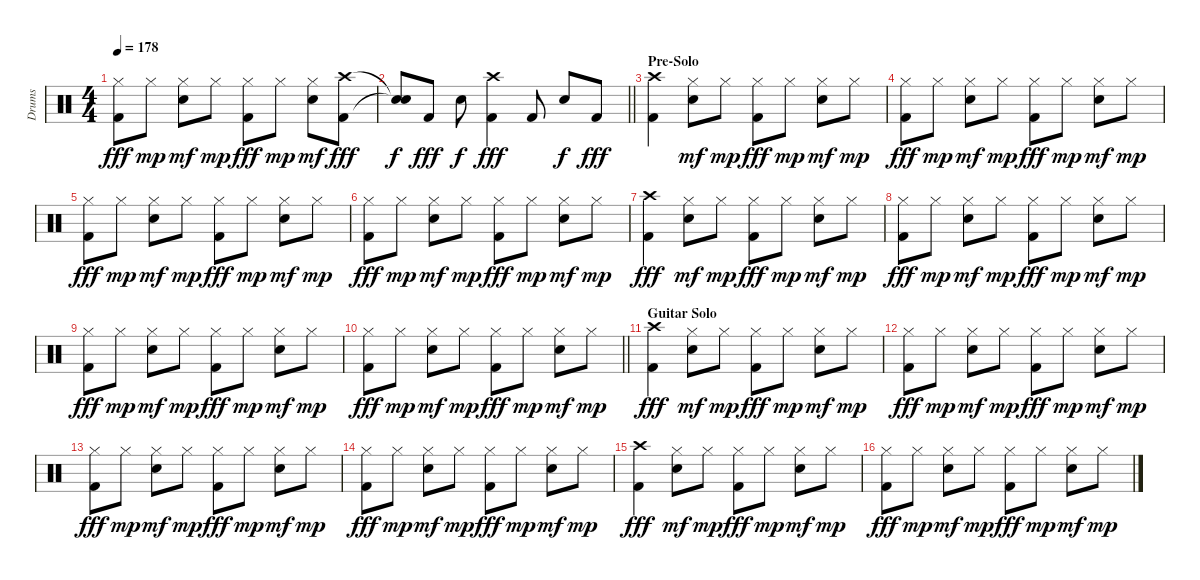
\track ("Drums" "Drums") {instrument percussion}
\staff {score}
\articulation defaults
\ts (4 4)
\tempo 178
\clef neutral
\ks c
("Hi-Hat (closed)" "Kick (hit) 2").8{dy fff} "Hi-Hat (closed)".8{dy mp} ("Hi-Hat (closed)" "Electric Snare (hit)").8{dy mf} "Hi-Hat (closed)".8{dy mp} ("Hi-Hat (closed)" "Kick (hit) 2").8{dy fff} "Hi-Hat (closed)".8{dy mp} ("Hi-Hat (closed)" "Electric Snare (hit)").8{dy mf} ("Crash high (hit)" "Kick (hit) 2").8{dy fff} |
\barLineRight lightlight
("Snare (hit)"{t} "Snare (hit)"{t}).8{dy f} "Kick (hit) 2".8{dy fff} "Electric Snare (hit)".8{dy f} ("Crash high (hit)" "Kick (hit) 2").4{dy fff} "Kick (hit) 2".8 "Electric Snare (hit)".8{dy f} "Kick (hit) 2".8{dy fff} |
\section ("" "Pre-Solo")
("Crash high (hit)" "Kick (hit) 2").4 ("Hi-Hat (closed)" "Electric Snare (hit)").8{dy mf} "Hi-Hat (closed)".8{dy mp} ("Hi-Hat (closed)" "Kick (hit) 2").8{dy fff} "Hi-Hat (closed)".8{dy mp} ("Hi-Hat (closed)" "Electric Snare (hit)").8{dy mf} "Hi-Hat (closed)".8{dy mp} |
("Hi-Hat (closed)" "Kick (hit) 2").8{dy fff} "Hi-Hat (closed)".8{dy mp} ("Hi-Hat (closed)" "Electric Snare (hit)").8{dy mf} "Hi-Hat (closed)".8{dy mp} ("Hi-Hat (closed)" "Kick (hit) 2").8{dy fff} "Hi-Hat (closed)".8{dy mp} ("Hi-Hat (closed)" "Electric Snare (hit)").8{dy mf} "Hi-Hat (closed)".8{dy mp} |
("Hi-Hat (closed)" "Kick (hit) 2").8{dy fff} "Hi-Hat (closed)".8{dy mp} ("Hi-Hat (closed)" "Electric Snare (hit)").8{dy mf} "Hi-Hat (closed)".8{dy mp} ("Hi-Hat (closed)" "Kick (hit) 2").8{dy fff} "Hi-Hat (closed)".8{dy mp} ("Hi-Hat (closed)" "Electric Snare (hit)").8{dy mf} "Hi-Hat (closed)".8{dy mp} |
("Hi-Hat (closed)" "Kick (hit) 2").8{dy fff} "Hi-Hat (closed)".8{dy mp} ("Hi-Hat (closed)" "Electric Snare (hit)").8{dy mf} "Hi-Hat (closed)".8{dy mp} ("Hi-Hat (closed)" "Kick (hit) 2").8{dy fff} "Hi-Hat (closed)".8{dy mp} ("Hi-Hat (closed)" "Electric Snare (hit)").8{dy mf} "Hi-Hat (closed)".8{dy mp} |
("Crash high (hit)" "Kick (hit) 2").4{dy fff} ("Hi-Hat (closed)" "Electric Snare (hit)").8{dy mf} "Hi-Hat (closed)".8{dy mp} ("Hi-Hat (closed)" "Kick (hit) 2").8{dy fff} "Hi-Hat (closed)".8{dy mp} ("Hi-Hat (closed)" "Electric Snare (hit)").8{dy mf} "Hi-Hat (closed)".8{dy mp} |
("Hi-Hat (closed)" "Kick (hit) 2").8{dy fff} "Hi-Hat (closed)".8{dy mp} ("Hi-Hat (closed)" "Electric Snare (hit)").8{dy mf} "Hi-Hat (closed)".8{dy mp} ("Hi-Hat (closed)" "Kick (hit) 2").8{dy fff} "Hi-Hat (closed)".8{dy mp} ("Hi-Hat (closed)" "Electric Snare (hit)").8{dy mf} "Hi-Hat (closed)".8{dy mp} |
("Hi-Hat (closed)" "Kick (hit) 2").8{dy fff} "Hi-Hat (closed)".8{dy mp} ("Hi-Hat (closed)" "Electric Snare (hit)").8{dy mf} "Hi-Hat (closed)".8{dy mp} ("Hi-Hat (closed)" "Kick (hit) 2").8{dy fff} "Hi-Hat (closed)".8{dy mp} ("Hi-Hat (closed)" "Electric Snare (hit)").8{dy mf} "Hi-Hat (closed)".8{dy mp} |
\barLineRight lightlight
("Hi-Hat (closed)" "Kick (hit) 2").8{dy fff} "Hi-Hat (closed)".8{dy mp} ("Hi-Hat (closed)" "Electric Snare (hit)").8{dy mf} "Hi-Hat (closed)".8{dy mp} ("Hi-Hat (closed)" "Kick (hit) 2").8{dy fff} "Hi-Hat (closed)".8{dy mp} ("Hi-Hat (closed)" "Electric Snare (hit)").8{dy mf} "Hi-Hat (closed)".8{dy mp} |
\section ("" "Guitar Solo")
("Crash high (hit)" "Kick (hit) 2").4{dy fff} ("Hi-Hat (closed)" "Electric Snare (hit)").8{dy mf} "Hi-Hat (closed)".8{dy mp} ("Hi-Hat (closed)" "Kick (hit) 2").8{dy fff} "Hi-Hat (closed)".8{dy mp} ("Hi-Hat (closed)" "Electric Snare (hit)").8{dy mf} "Hi-Hat (closed)".8{dy mp} |
("Hi-Hat (closed)" "Kick (hit) 2").8{dy fff} "Hi-Hat (closed)".8{dy mp} ("Hi-Hat (closed)" "Electric Snare (hit)").8{dy mf} "Hi-Hat (closed)".8{dy mp} ("Hi-Hat (closed)" "Kick (hit) 2").8{dy fff} "Hi-Hat (closed)".8{dy mp} ("Hi-Hat (closed)" "Electric Snare (hit)").8{dy mf} "Hi-Hat (closed)".8{dy mp} |
("Hi-Hat (closed)" "Kick (hit) 2").8{dy fff} "Hi-Hat (closed)".8{dy mp} ("Hi-Hat (closed)" "Electric Snare (hit)").8{dy mf} "Hi-Hat (closed)".8{dy mp} ("Hi-Hat (closed)" "Kick (hit) 2").8{dy fff} "Hi-Hat (closed)".8{dy mp} ("Hi-Hat (closed)" "Electric Snare (hit)").8{dy mf} "Hi-Hat (closed)".8{dy mp} |
("Hi-Hat (closed)" "Kick (hit) 2").8{dy fff} "Hi-Hat (closed)".8{dy mp} ("Hi-Hat (closed)" "Electric Snare (hit)").8{dy mf} "Hi-Hat (closed)".8{dy mp} ("Hi-Hat (closed)" "Kick (hit) 2").8{dy fff} "Hi-Hat (closed)".8{dy mp} ("Hi-Hat (closed)" "Electric Snare (hit)").8{dy mf} "Hi-Hat (closed)".8{dy mp} |
("Crash high (hit)" "Kick (hit) 2").4{dy fff} ("Hi-Hat (closed)" "Electric Snare (hit)").8{dy mf} "Hi-Hat (closed)".8{dy mp} ("Hi-Hat (closed)" "Kick (hit) 2").8{dy fff} "Hi-Hat (closed)".8{dy mp} ("Hi-Hat (closed)" "Electric Snare (hit)").8{dy mf} "Hi-Hat (closed)".8{dy mp} |
("Hi-Hat (closed)" "Kick (hit) 2").8{dy fff} "Hi-Hat (closed)".8{dy mp} ("Hi-Hat (closed)" "Electric Snare (hit)").8{dy mf} "Hi-Hat (closed)".8{dy mp} ("Hi-Hat (closed)" "Kick (hit) 2").8{dy fff} "Hi-Hat (closed)".8{dy mp} ("Hi-Hat (closed)" "Electric Snare (hit)").8{dy mf} "Hi-Hat (closed)".8{dy mp}
